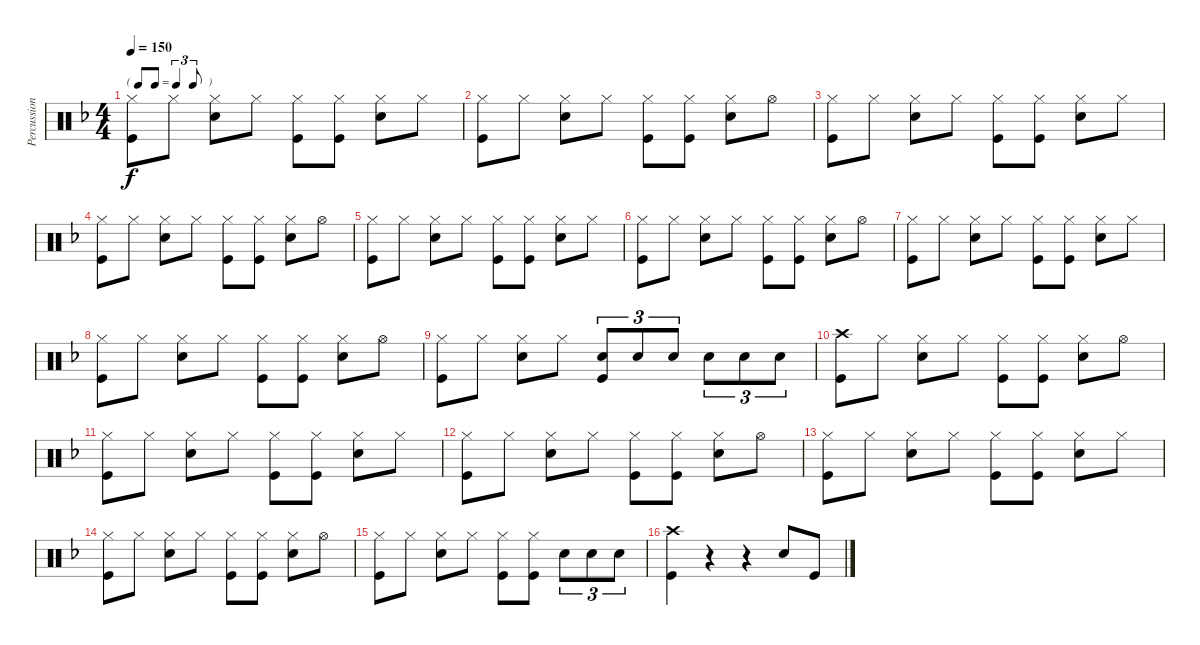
\track ("Percussion" "Percussion") {instrument percussion}
\staff {score}
\articulation defaults
\ts (4 4)
\tf triplet8th
\tempo 150
\clef neutral
\ks f
("Hi-Hat (closed)" "Kick (hit)").8{dy f} "Hi-Hat (closed)".8 ("Hi-Hat (closed)" "Snare (hit) 2").8 "Hi-Hat (closed)".8 ("Hi-Hat (closed)" "Kick (hit)").8 ("Hi-Hat (closed)" "Kick (hit)").8 ("Hi-Hat (closed)" "Snare (hit) 2").8 "Hi-Hat (closed)".8 |
("Hi-Hat (closed)" "Kick (hit)").8 "Hi-Hat (closed)".8 ("Hi-Hat (closed)" "Snare (hit) 2").8 "Hi-Hat (closed)".8 ("Hi-Hat (closed)" "Kick (hit)").8 ("Hi-Hat (closed)" "Kick (hit)").8 ("Hi-Hat (closed)" "Snare (hit) 2").8 "Hi-Hat (open)".8 |
("Hi-Hat (closed)" "Kick (hit)").8 "Hi-Hat (closed)".8 ("Hi-Hat (closed)" "Snare (hit) 2").8 "Hi-Hat (closed)".8 ("Hi-Hat (closed)" "Kick (hit)").8 ("Hi-Hat (closed)" "Kick (hit)").8 ("Hi-Hat (closed)" "Snare (hit) 2").8 "Hi-Hat (closed)".8 |
("Hi-Hat (closed)" "Kick (hit)").8 "Hi-Hat (closed)".8 ("Hi-Hat (closed)" "Snare (hit) 2").8 "Hi-Hat (closed)".8 ("Hi-Hat (closed)" "Kick (hit)").8 ("Hi-Hat (closed)" "Kick (hit)").8 ("Hi-Hat (closed)" "Snare (hit) 2").8 "Hi-Hat (open)".8 |
("Hi-Hat (closed)" "Kick (hit)").8 "Hi-Hat (closed)".8 ("Hi-Hat (closed)" "Snare (hit) 2").8 "Hi-Hat (closed)".8 ("Hi-Hat (closed)" "Kick (hit)").8 ("Hi-Hat (closed)" "Kick (hit)").8 ("Hi-Hat (closed)" "Snare (hit) 2").8 "Hi-Hat (closed)".8 |
("Hi-Hat (closed)" "Kick (hit)").8 "Hi-Hat (closed)".8 ("Hi-Hat (closed)" "Snare (hit) 2").8 "Hi-Hat (closed)".8 ("Hi-Hat (closed)" "Kick (hit)").8 ("Hi-Hat (closed)" "Kick (hit)").8 ("Hi-Hat (closed)" "Snare (hit) 2").8 "Hi-Hat (open)".8 |
("Hi-Hat (closed)" "Kick (hit)").8 "Hi-Hat (closed)".8 ("Hi-Hat (closed)" "Snare (hit) 2").8 "Hi-Hat (closed)".8 ("Hi-Hat (closed)" "Kick (hit)").8 ("Hi-Hat (closed)" "Kick (hit)").8 ("Hi-Hat (closed)" "Snare (hit) 2").8 "Hi-Hat (closed)".8 |
("Hi-Hat (closed)" "Kick (hit)").8 "Hi-Hat (closed)".8 ("Hi-Hat (closed)" "Snare (hit) 2").8 "Hi-Hat (closed)".8 ("Hi-Hat (closed)" "Kick (hit)").8 ("Hi-Hat (closed)" "Kick (hit)").8 ("Hi-Hat (closed)" "Snare (hit) 2").8 "Hi-Hat (open)".8 |
("Hi-Hat (closed)" "Kick (hit)").8 "Hi-Hat (closed)".8 ("Hi-Hat (closed)" "Snare (hit) 2").8 "Hi-Hat (closed)".8 ("Snare (hit) 2" "Kick (hit)").8{tu (3 2)} "Snare (hit) 2".8{tu (3 2)} "Snare (hit) 2".8{tu (3 2)} "Snare (hit) 2".8{tu (3 2)} "Snare (hit) 2".8{tu (3 2)} "Snare (hit) 2".8{tu (3 2)} |
("Crash high (hit)" "Kick (hit)").8 "Hi-Hat (closed)".8 ("Hi-Hat (closed)" "Snare (hit) 2").8 "Hi-Hat (closed)".8 ("Hi-Hat (closed)" "Kick (hit)").8 ("Hi-Hat (closed)" "Kick (hit)").8 ("Hi-Hat (closed)" "Snare (hit) 2").8 "Hi-Hat (open)".8 |
("Hi-Hat (closed)" "Kick (hit)").8 "Hi-Hat (closed)".8 ("Hi-Hat (closed)" "Snare (hit) 2").8 "Hi-Hat (closed)".8 ("Hi-Hat (closed)" "Kick (hit)").8 ("Hi-Hat (closed)" "Kick (hit)").8 ("Hi-Hat (closed)" "Snare (hit) 2").8 "Hi-Hat (closed)".8 |
("Hi-Hat (closed)" "Kick (hit)").8 "Hi-Hat (closed)".8 ("Hi-Hat (closed)" "Snare (hit) 2").8 "Hi-Hat (closed)".8 ("Hi-Hat (closed)" "Kick (hit)").8 ("Hi-Hat (closed)" "Kick (hit)").8 ("Hi-Hat (closed)" "Snare (hit) 2").8 "Hi-Hat (open)".8 |
("Hi-Hat (closed)" "Kick (hit)").8 "Hi-Hat (closed)".8 ("Hi-Hat (closed)" "Snare (hit) 2").8 "Hi-Hat (closed)".8 ("Hi-Hat (closed)" "Kick (hit)").8 ("Hi-Hat (closed)" "Kick (hit)").8 ("Hi-Hat (closed)" "Snare (hit) 2").8 "Hi-Hat (closed)".8 |
("Hi-Hat (closed)" "Kick (hit)").8 "Hi-Hat (closed)".8 ("Hi-Hat (closed)" "Snare (hit) 2").8 "Hi-Hat (closed)".8 ("Hi-Hat (closed)" "Kick (hit)").8 ("Hi-Hat (closed)" "Kick (hit)").8 ("Hi-Hat (closed)" "Snare (hit) 2").8 "Hi-Hat (open)".8 |
("Hi-Hat (closed)" "Kick (hit)").8 "Hi-Hat (closed)".8 ("Hi-Hat (closed)" "Snare (hit) 2").8 "Hi-Hat (closed)".8 ("Hi-Hat (closed)" "Kick (hit)").8 ("Hi-Hat (closed)" "Kick (hit)").8 "Snare (hit) 2".8{tu (3 2)} "Snare (hit) 2".8{tu (3 2)} "Snare (hit) 2".8{tu (3 2)} |
("Crash high (hit)" "Kick (hit)").4 r.4 r.4 "Snare (hit) 2".8 "Kick (hit)".8
